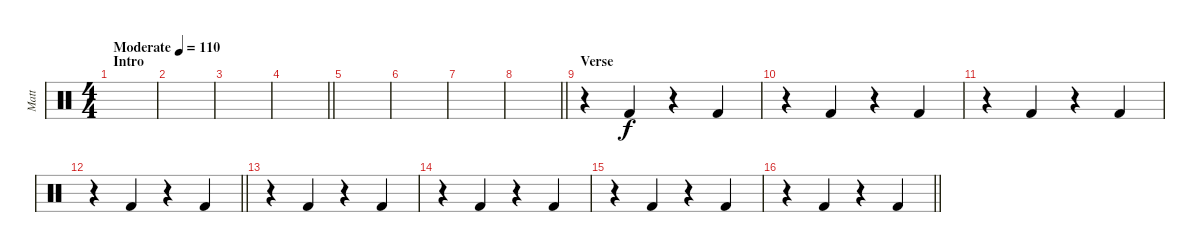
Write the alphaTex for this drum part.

\track ("Matt" "Matt") {instrument percussion}
\staff {score}
\articulation defaults
\ts (4 4)
\section ("" "Intro")
\tempo (110 "Moderate")
\clef neutral
\ks c
|
|
|
\barLineRight lightlight
|
|
|
|
\barLineRight lightlight
|
\section ("" "Verse")
r.4 "Kick (hit) 2".4 r.4 "Kick (hit) 2".4 |
r.4 "Kick (hit) 2".4 r.4 "Kick (hit) 2".4 |
r.4 "Kick (hit) 2".4 r.4 "Kick (hit) 2".4 |
\barLineRight lightlight
r.4 "Kick (hit) 2".4 r.4 "Kick (hit) 2".4 |
r.4 "Kick (hit) 2".4 r.4 "Kick (hit) 2".4 |
r.4 "Kick (hit) 2".4 r.4 "Kick (hit) 2".4 |
r.4 "Kick (hit) 2".4 r.4 "Kick (hit) 2".4 |
\barLineRight lightlight
r.4 "Kick (hit) 2".4 r.4 "Kick (hit) 2".4
